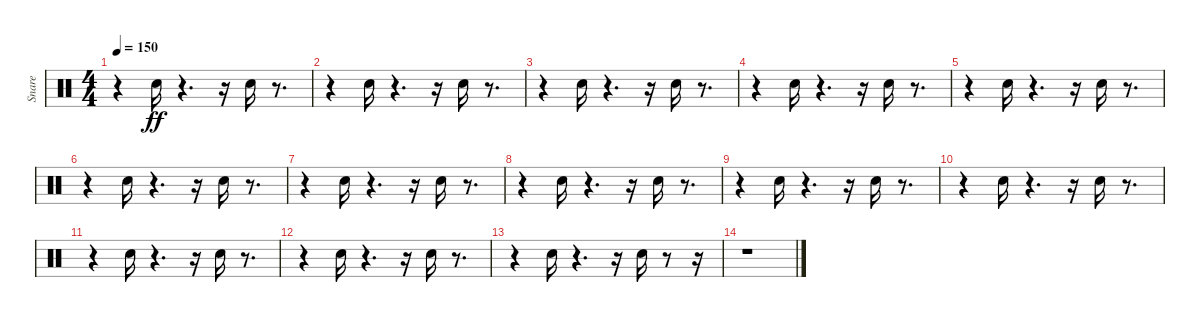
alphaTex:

\track ("Snare" "Snare") {instrument percussion}
\staff {score}
\articulation defaults
\ts (4 4)
\tempo 150
\clef neutral
\ks c
r.4{dy ff} "Electric Snare (hit)".16 r.4{d} r.16 "Electric Snare (hit)".16 r.8{d} |
r.4 "Electric Snare (hit)".16 r.4{d} r.16 "Electric Snare (hit)".16 r.8{d} |
r.4 "Electric Snare (hit)".16 r.4{d} r.16 "Electric Snare (hit)".16 r.8{d} |
r.4 "Electric Snare (hit)".16 r.4{d} r.16 "Electric Snare (hit)".16 r.8{d} |
r.4 "Electric Snare (hit)".16 r.4{d} r.16 "Electric Snare (hit)".16 r.8{d} |
r.4 "Electric Snare (hit)".16 r.4{d} r.16 "Electric Snare (hit)".16 r.8{d} |
r.4 "Electric Snare (hit)".16 r.4{d} r.16 "Electric Snare (hit)".16 r.8{d} |
r.4 "Electric Snare (hit)".16 r.4{d} r.16 "Electric Snare (hit)".16 r.8{d} |
r.4 "Electric Snare (hit)".16 r.4{d} r.16 "Electric Snare (hit)".16 r.8{d} |
r.4 "Electric Snare (hit)".16 r.4{d} r.16 "Electric Snare (hit)".16 r.8{d} |
r.4 "Electric Snare (hit)".16 r.4{d} r.16 "Electric Snare (hit)".16 r.8{d} |
r.4 "Electric Snare (hit)".16 r.4{d} r.16 "Electric Snare (hit)".16 r.8{d} |
r.4 "Electric Snare (hit)".16 r.4{d} r.16 "Electric Snare (hit)".16 r.8 r.16 |
r.1
